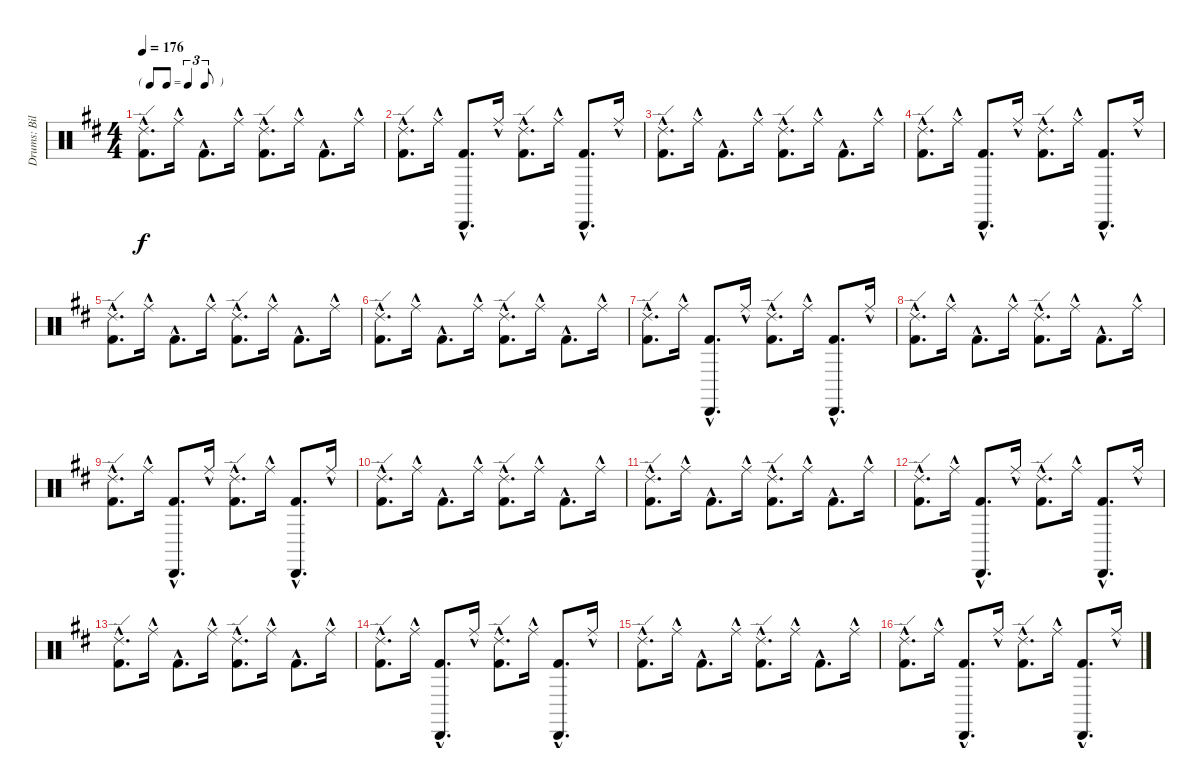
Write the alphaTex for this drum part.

\track ("Drums: Bill" "Drums: Bil") {instrument percussion}
\staff {score}
\articulation defaults
\ts (4 4)
\tf triplet8th
\tempo 176
\clef neutral
\ks d
("Ride (edge) 2"{hac} "Kick (hit) 2"{hac}).8{d dy f} "Ride (middle)"{hac}.16 "Kick (hit) 2"{hac}.8{d} "Ride (middle)"{hac}.16 ("Ride (edge) 2"{hac} "Kick (hit) 2"{hac}).8{d} "Ride (middle)"{hac}.16 "Kick (hit) 2"{hac}.8{d} "Ride (middle)"{hac}.16 |
("Ride (edge) 2"{hac} "Kick (hit) 2"{hac}).8{d} "Ride (middle)"{hac}.16 ("Cabasa (hit)" "Kick (hit) 2"{hac}).8{d} "Ride (middle)"{hac}.16 ("Ride (edge) 2"{hac} "Kick (hit) 2"{hac}).8{d} "Ride (middle)"{hac}.16 ("Cabasa (hit)" "Kick (hit) 2"{hac}).8{d} "Ride (middle)"{hac}.16 |
("Ride (edge) 2"{hac} "Kick (hit) 2"{hac}).8{d} "Ride (middle)"{hac}.16 "Kick (hit) 2"{hac}.8{d} "Ride (middle)"{hac}.16 ("Ride (edge) 2"{hac} "Kick (hit) 2"{hac}).8{d} "Ride (middle)"{hac}.16 "Kick (hit) 2"{hac}.8{d} "Ride (middle)"{hac}.16 |
("Ride (edge) 2"{hac} "Kick (hit) 2"{hac}).8{d} "Ride (middle)"{hac}.16 ("Cabasa (hit)" "Kick (hit) 2"{hac}).8{d} "Ride (middle)"{hac}.16 ("Ride (edge) 2"{hac} "Kick (hit) 2"{hac}).8{d} "Ride (middle)"{hac}.16 ("Cabasa (hit)" "Kick (hit) 2"{hac}).8{d} "Ride (middle)"{hac}.16 |
("Ride (edge) 2"{hac} "Kick (hit) 2"{hac}).8{d} "Ride (middle)"{hac}.16 "Kick (hit) 2"{hac}.8{d} "Ride (middle)"{hac}.16 ("Ride (edge) 2"{hac} "Kick (hit) 2"{hac}).8{d} "Ride (middle)"{hac}.16 "Kick (hit) 2"{hac}.8{d} "Ride (middle)"{hac}.16 |
("Ride (edge) 2"{hac} "Kick (hit) 2"{hac}).8{d} "Ride (middle)"{hac}.16 "Kick (hit) 2"{hac}.8{d} "Ride (middle)"{hac}.16 ("Ride (edge) 2"{hac} "Kick (hit) 2"{hac}).8{d} "Ride (middle)"{hac}.16 "Kick (hit) 2"{hac}.8{d} "Ride (middle)"{hac}.16 |
("Ride (edge) 2"{hac} "Kick (hit) 2"{hac}).8{d} "Ride (middle)"{hac}.16 ("Cabasa (hit)" "Kick (hit) 2"{hac}).8{d} "Ride (middle)"{hac}.16 ("Ride (edge) 2"{hac} "Kick (hit) 2"{hac}).8{d} "Ride (middle)"{hac}.16 ("Cabasa (hit)" "Kick (hit) 2"{hac}).8{d} "Ride (middle)"{hac}.16 |
("Ride (edge) 2"{hac} "Kick (hit) 2"{hac}).8{d} "Ride (middle)"{hac}.16 "Kick (hit) 2"{hac}.8{d} "Ride (middle)"{hac}.16 ("Ride (edge) 2"{hac} "Kick (hit) 2"{hac}).8{d} "Ride (middle)"{hac}.16 "Kick (hit) 2"{hac}.8{d} "Ride (middle)"{hac}.16 |
("Ride (edge) 2"{hac} "Kick (hit) 2"{hac}).8{d} "Ride (middle)"{hac}.16 ("Cabasa (hit)" "Kick (hit) 2"{hac}).8{d} "Ride (middle)"{hac}.16 ("Ride (edge) 2"{hac} "Kick (hit) 2"{hac}).8{d} "Ride (middle)"{hac}.16 ("Cabasa (hit)" "Kick (hit) 2"{hac}).8{d} "Ride (middle)"{hac}.16 |
("Ride (edge) 2"{hac} "Kick (hit) 2"{hac}).8{d} "Ride (middle)"{hac}.16 "Kick (hit) 2"{hac}.8{d} "Ride (middle)"{hac}.16 ("Ride (edge) 2"{hac} "Kick (hit) 2"{hac}).8{d} "Ride (middle)"{hac}.16 "Kick (hit) 2"{hac}.8{d} "Ride (middle)"{hac}.16 |
("Ride (edge) 2"{hac} "Kick (hit) 2"{hac}).8{d} "Ride (middle)"{hac}.16 "Kick (hit) 2"{hac}.8{d} "Ride (middle)"{hac}.16 ("Ride (edge) 2"{hac} "Kick (hit) 2"{hac}).8{d} "Ride (middle)"{hac}.16 "Kick (hit) 2"{hac}.8{d} "Ride (middle)"{hac}.16 |
("Ride (edge) 2"{hac} "Kick (hit) 2"{hac}).8{d} "Ride (middle)"{hac}.16 ("Cabasa (hit)" "Kick (hit) 2"{hac}).8{d} "Ride (middle)"{hac}.16 ("Ride (edge) 2"{hac} "Kick (hit) 2"{hac}).8{d} "Ride (middle)"{hac}.16 ("Cabasa (hit)" "Kick (hit) 2"{hac}).8{d} "Ride (middle)"{hac}.16 |
("Ride (edge) 2"{hac} "Kick (hit) 2"{hac}).8{d} "Ride (middle)"{hac}.16 "Kick (hit) 2"{hac}.8{d} "Ride (middle)"{hac}.16 ("Ride (edge) 2"{hac} "Kick (hit) 2"{hac}).8{d} "Ride (middle)"{hac}.16 "Kick (hit) 2"{hac}.8{d} "Ride (middle)"{hac}.16 |
("Ride (edge) 2"{hac} "Kick (hit) 2"{hac}).8{d} "Ride (middle)"{hac}.16 ("Cabasa (hit)" "Kick (hit) 2"{hac}).8{d} "Ride (middle)"{hac}.16 ("Ride (edge) 2"{hac} "Kick (hit) 2"{hac}).8{d} "Ride (middle)"{hac}.16 ("Cabasa (hit)" "Kick (hit) 2"{hac}).8{d} "Ride (middle)"{hac}.16 |
("Ride (edge) 2"{hac} "Kick (hit) 2"{hac}).8{d} "Ride (middle)"{hac}.16 "Kick (hit) 2"{hac}.8{d} "Ride (middle)"{hac}.16 ("Ride (edge) 2"{hac} "Kick (hit) 2"{hac}).8{d} "Ride (middle)"{hac}.16 "Kick (hit) 2"{hac}.8{d} "Ride (middle)"{hac}.16 |
("Ride (edge) 2"{hac} "Kick (hit) 2"{hac}).8{d} "Ride (middle)"{hac}.16 ("Cabasa (hit)" "Kick (hit) 2"{hac}).8{d} "Ride (middle)"{hac}.16 ("Ride (edge) 2"{hac} "Kick (hit) 2"{hac}).8{d} "Ride (middle)"{hac}.16 ("Cabasa (hit)" "Kick (hit) 2"{hac}).8{d} "Ride (middle)"{hac}.16
